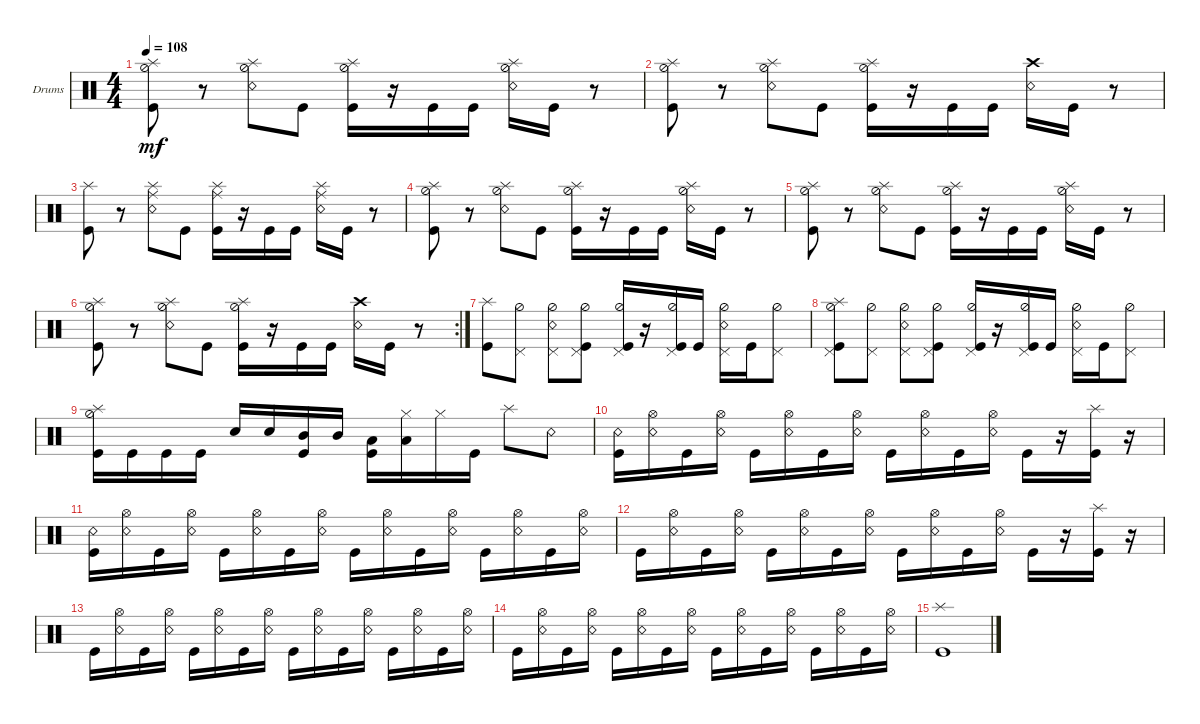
\bracketExtendMode groupsimilarinstruments
\firstSystemTrackNameOrientation horizontal
\otherSystemsTrackNameOrientation horizontal
\track ("Drumkit" "Drums") {instrument percussion}
\staff {score}
\articulation defaults
\ts (4 4)
\tempo 108
\clef neutral
\scale
0.333333
\ks c
("Kick (hit)" "Hi-Hat (half)" "Splash (hit)").8{dy mf} r.8 ("Snare (rim shot)" "Hi-Hat (half)" "Splash (hit)").8 "Kick (hit)".8 ("Kick (hit)" "Hi-Hat (half)" "Splash (hit)").16 r.16 "Kick (hit)".16 "Kick (hit)".16 ("Snare (rim shot)" "Hi-Hat (half)" "Splash (hit)").16 "Kick (hit)".16 r.8 |
\scale
0.333333 ("Kick (hit)" "Hi-Hat (half)" "Splash (hit)").8 r.8 ("Snare (rim shot)" "Hi-Hat (half)" "Splash (hit)").8 "Kick (hit)".8 ("Kick (hit)" "Hi-Hat (half)" "Splash (hit)").16 r.16 "Kick (hit)".16 "Kick (hit)".16 ("Snare (rim shot)" "Crash high (hit)").16 "Kick (hit)".16 r.8 |
\scale
0.333333 ("Kick (hit)" "Splash (hit)").8 r.8 ("Snare (rim shot)" "Ride (middle)" "Splash (hit)").8 "Kick (hit)".8 ("Kick (hit)" "Ride (middle)" "Splash (hit)").16 r.16 "Kick (hit)".16 "Kick (hit)".16 ("Snare (rim shot)" "Ride (middle)" "Splash (hit)").16 "Kick (hit)".16 r.8 |
\scale
0.333333 ("Kick (hit)" "Hi-Hat (half)" "Splash (hit)").8 r.8 ("Snare (rim shot)" "Hi-Hat (half)" "Splash (hit)").8 "Kick (hit)".8 ("Kick (hit)" "Hi-Hat (half)" "Splash (hit)").16 r.16 "Kick (hit)".16 "Kick (hit)".16 ("Snare (rim shot)" "Hi-Hat (half)" "Splash (hit)").16 "Kick (hit)".16 r.8 |
\scale
0.333333 ("Kick (hit)" "Hi-Hat (half)" "Splash (hit)").8 r.8 ("Snare (rim shot)" "Hi-Hat (half)" "Splash (hit)").8 "Kick (hit)".8 ("Kick (hit)" "Hi-Hat (half)" "Splash (hit)").16 r.16 "Kick (hit)".16 "Kick (hit)".16 ("Snare (rim shot)" "Hi-Hat (half)" "Splash (hit)").16 "Kick (hit)".16 r.8 |
\rc 2
\scale
0.356322 ("Kick (hit)" "Hi-Hat (half)" "Splash (hit)").8 r.8 ("Snare (rim shot)" "Hi-Hat (half)" "Splash (hit)").8 "Kick (hit)".8 ("Kick (hit)" "Hi-Hat (half)" "Splash (hit)").16 r.16 "Kick (hit)".16 "Kick (hit)".16 ("Snare (rim shot)" "Crash high (hit)").16 "Kick (hit)".16 r.8 |
\scale
0.321839 ("Kick (hit)" "Splash (hit)").8 ("Hi-Hat (half)" "Pedal Hi-Hat (hit)").8 ("Snare (rim shot)" "Hi-Hat (half)" "Pedal Hi-Hat (hit)").8 ("Kick (hit)" "Hi-Hat (half)" "Pedal Hi-Hat (hit)").8 ("Kick (hit)" "Hi-Hat (half)" "Pedal Hi-Hat (hit)").16 r.16 ("Kick (hit)" "Hi-Hat (half)" "Pedal Hi-Hat (hit)").16 "Kick (hit)".16 ("Snare (rim shot)" "Hi-Hat (half)" "Pedal Hi-Hat (hit)").16 "Kick (hit)".16 ("Hi-Hat (half)" "Pedal Hi-Hat (hit)").8 |
\scale
0.321839 ("Kick (hit)" "Hi-Hat (half)" "Splash (hit)" "Pedal Hi-Hat (hit)").8 ("Hi-Hat (half)" "Pedal Hi-Hat (hit)").8 ("Snare (rim shot)" "Hi-Hat (half)" "Pedal Hi-Hat (hit)").8 ("Kick (hit)" "Hi-Hat (half)" "Pedal Hi-Hat (hit)").8 ("Kick (hit)" "Hi-Hat (half)" "Pedal Hi-Hat (hit)").16 r.16 ("Kick (hit)" "Hi-Hat (half)" "Pedal Hi-Hat (hit)").16 "Kick (hit)".16 ("Snare (rim shot)" "Hi-Hat (half)" "Pedal Hi-Hat (hit)").16 "Kick (hit)".16 ("Hi-Hat (half)" "Pedal Hi-Hat (hit)").8 |
\scale
0.333333 ("Kick (hit)" "Hi-Hat (half)" "Splash (hit)").16 "Kick (hit)".16 "Kick (hit)".16 "Kick (hit)".16 "Snare (hit) 2".16 "Snare (hit) 2".16 ("Mid Tom (hit)" "Kick (hit)").16 "Mid Tom (hit)".16 ("Low Tom (hit)" "Kick (hit)").16 ("Low Tom (hit)" "Hi-Hat (closed)").16 "Hi-Hat (closed)".16 "Kick (hit)".16 "Splash (hit)".8 "Snare (rim shot)".8 |
\scale
0.333333 ("Kick (hit)" "Snare (rim shot)").16 ("Snare (rim shot)" "Hi-Hat (open)").16 "Kick (hit)".16 ("Snare (rim shot)" "Hi-Hat (open)").16 "Kick (hit)".16 ("Snare (rim shot)" "Hi-Hat (open)").16 "Kick (hit)".16 ("Snare (rim shot)" "Hi-Hat (open)").16 "Kick (hit)".16 ("Snare (rim shot)" "Hi-Hat (open)").16 "Kick (hit)".16 ("Snare (rim shot)" "Hi-Hat (open)").16 "Kick (hit)".16 r.16 ("Kick (hit)" "Splash (hit)").16 r.16 |
\scale
0.333333 ("Kick (hit)" "Snare (rim shot)").16 ("Snare (rim shot)" "Hi-Hat (open)").16 "Kick (hit)".16 ("Snare (rim shot)" "Hi-Hat (open)").16 "Kick (hit)".16 ("Snare (rim shot)" "Hi-Hat (open)").16 "Kick (hit)".16 ("Snare (rim shot)" "Hi-Hat (open)").16 "Kick (hit)".16 ("Snare (rim shot)" "Hi-Hat (open)").16 "Kick (hit)".16 ("Snare (rim shot)" "Hi-Hat (open)").16 "Kick (hit)".16 ("Snare (rim shot)" "Hi-Hat (open)").16 "Kick (hit)".16 ("Snare (rim shot)" "Hi-Hat (open)").16 |
\scale
0.333333 "Kick (hit)".16 ("Snare (rim shot)" "Hi-Hat (open)").16 "Kick (hit)".16 ("Snare (rim shot)" "Hi-Hat (open)").16 "Kick (hit)".16 ("Snare (rim shot)" "Hi-Hat (open)").16 "Kick (hit)".16 ("Snare (rim shot)" "Hi-Hat (open)").16 "Kick (hit)".16 ("Snare (rim shot)" "Hi-Hat (open)").16 "Kick (hit)".16 ("Snare (rim shot)" "Hi-Hat (open)").16 "Kick (hit)".16 r.16 ("Kick (hit)" "Splash (hit)").16 r.16 |
\scale
0.333333 "Kick (hit)".16 ("Snare (rim shot)" "Hi-Hat (open)").16 "Kick (hit)".16 ("Snare (rim shot)" "Hi-Hat (open)").16 "Kick (hit)".16 ("Snare (rim shot)" "Hi-Hat (open)").16 "Kick (hit)".16 ("Snare (rim shot)" "Hi-Hat (open)").16 "Kick (hit)".16 ("Snare (rim shot)" "Hi-Hat (open)").16 "Kick (hit)".16 ("Snare (rim shot)" "Hi-Hat (open)").16 "Kick (hit)".16 ("Snare (rim shot)" "Hi-Hat (open)").16 "Kick (hit)".16 ("Snare (rim shot)" "Hi-Hat (open)").16 |
\scale
0.333333 "Kick (hit)".16 ("Snare (rim shot)" "Hi-Hat (open)").16 "Kick (hit)".16 ("Snare (rim shot)" "Hi-Hat (open)").16 "Kick (hit)".16 ("Snare (rim shot)" "Hi-Hat (open)").16 "Kick (hit)".16 ("Snare (rim shot)" "Hi-Hat (open)").16 "Kick (hit)".16 ("Snare (rim shot)" "Hi-Hat (open)").16 "Kick (hit)".16 ("Snare (rim shot)" "Hi-Hat (open)").16 "Kick (hit)".16 ("Snare (rim shot)" "Hi-Hat (open)").16 "Kick (hit)".16 ("Snare (rim shot)" "Hi-Hat (open)").16 |
("Kick (hit)" "Splash (hit)").1
